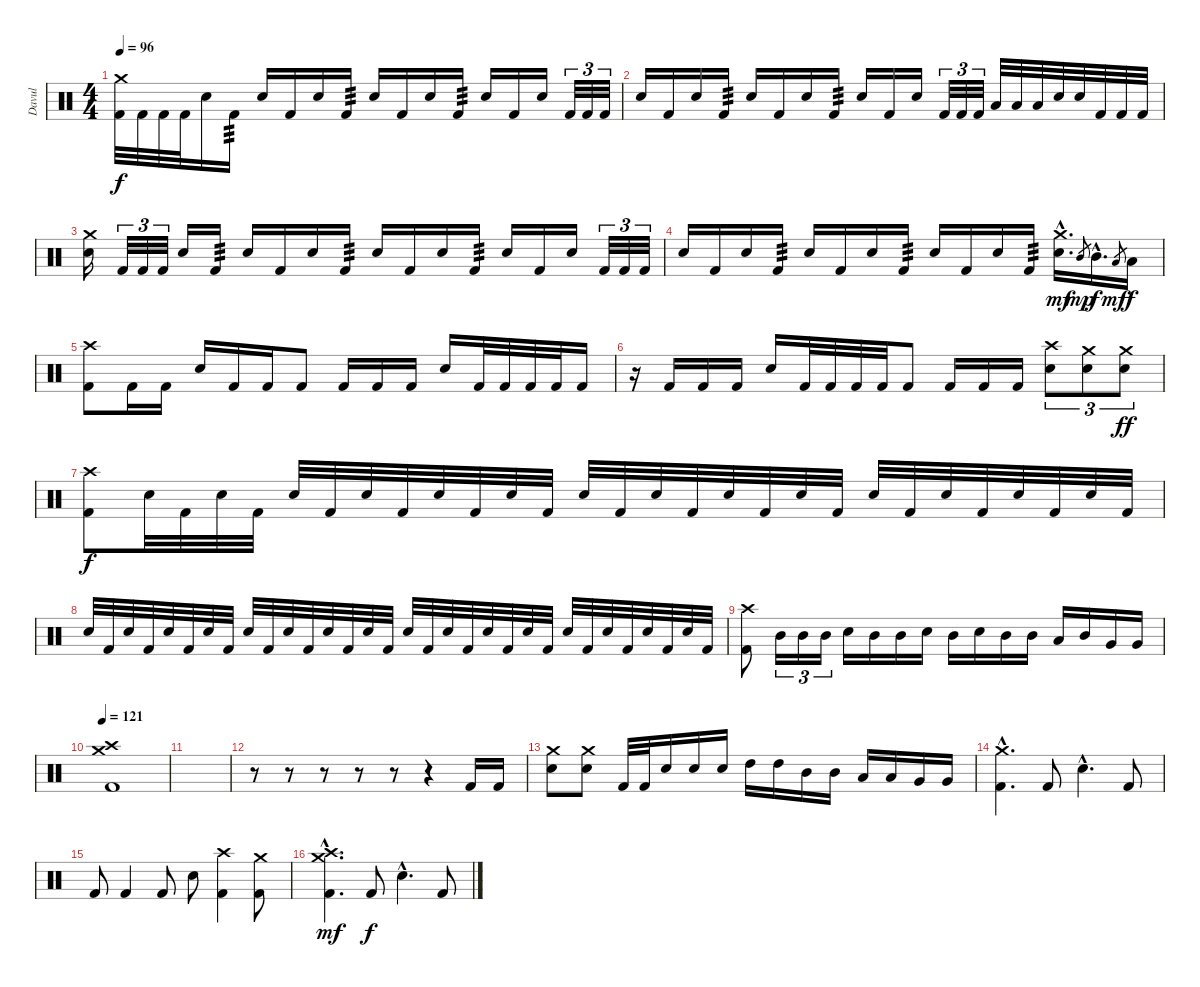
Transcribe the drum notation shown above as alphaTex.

\track ("Davul" "Davul") {instrument percussion}
\staff {score}
\articulation defaults
\ts (4 4)
\tempo 96
\clef neutral
\ks c
("Crash medium (hit)" "Kick (hit) 2").32{dy f} "Kick (hit) 2".32 "Kick (hit) 2".32 "Kick (hit) 2".32 "Electric Snare (hit)".16 "Kick (hit) 2".16{tp 3} "Electric Snare (hit)".16 "Kick (hit) 2".16 "Electric Snare (hit)".16 "Kick (hit) 2".16{tp 3} "Electric Snare (hit)".16 "Kick (hit) 2".16 "Electric Snare (hit)".16 "Kick (hit) 2".16{tp 3} "Electric Snare (hit)".16 "Kick (hit) 2".16 "Electric Snare (hit)".16 "Kick (hit) 2".32{tu (3 2)} "Kick (hit) 2".32{tu (3 2)} "Kick (hit) 2".32{tu (3 2)} |
"Electric Snare (hit)".16 "Kick (hit) 2".16 "Electric Snare (hit)".16 "Kick (hit) 2".16{tp 3} "Electric Snare (hit)".16 "Kick (hit) 2".16 "Electric Snare (hit)".16 "Kick (hit) 2".16{tp 3} "Electric Snare (hit)".16 "Kick (hit) 2".16 "Electric Snare (hit)".16 "Kick (hit) 2".32{tu (3 2)} "Kick (hit) 2".32{tu (3 2)} "Kick (hit) 2".32{tu (3 2)} "Low Tom (hit)".32 "Low Tom (hit)".32 "Low Tom (hit)".32 "Electric Snare (hit)".32 "Electric Snare (hit)".32 "Kick (hit) 2".32 "Kick (hit) 2".32 "Kick (hit) 2".32 |
("Crash medium (hit)" "Electric Snare (hit)").16 "Kick (hit) 2".32{tu (3 2)} "Kick (hit) 2".32{tu (3 2)} "Kick (hit) 2".32{tu (3 2)} "Electric Snare (hit)".16 "Kick (hit) 2".16{tp 3} "Electric Snare (hit)".16 "Kick (hit) 2".16 "Electric Snare (hit)".16 "Kick (hit) 2".16{tp 3} "Electric Snare (hit)".16 "Kick (hit) 2".16 "Electric Snare (hit)".16 "Kick (hit) 2".16{tp 3} "Electric Snare (hit)".16 "Kick (hit) 2".16 "Electric Snare (hit)".16 "Kick (hit) 2".32{tu (3 2)} "Kick (hit) 2".32{tu (3 2)} "Kick (hit) 2".32{tu (3 2)} |
"Electric Snare (hit)".16 "Kick (hit) 2".16 "Electric Snare (hit)".16 "Kick (hit) 2".16{tp 3} "Electric Snare (hit)".16 "Kick (hit) 2".16 "Electric Snare (hit)".16 "Kick (hit) 2".16{tp 3} "Electric Snare (hit)".16 "Kick (hit) 2".16 "Electric Snare (hit)".16 "Kick (hit) 2".16{tp 3} ("Crash medium (hit)"{hac} "Electric Snare (hit)"{hac}).16{d dy mf} "Mid Tom (hit)".8{gr dy mp} "Mid Tom (hit)"{hac}.16{d dy f} "Low Tom (hit)".8{gr dy mf} "Low Tom (hit)".16{dy f} |
("Crash high (hit)" "Kick (hit) 2").8 "Kick (hit) 2".16 "Kick (hit) 2".16 "Electric Snare (hit)".16 "Kick (hit) 2".16 "Kick (hit) 2".16 "Kick (hit) 2".8 "Kick (hit) 2".16 "Kick (hit) 2".16 "Kick (hit) 2".16 "Electric Snare (hit)".16 "Kick (hit) 2".32 "Kick (hit) 2".32 "Kick (hit) 2".32 "Kick (hit) 2".32 "Kick (hit) 2".16 |
r.16 "Kick (hit) 2".16 "Kick (hit) 2".16 "Kick (hit) 2".16 "Electric Snare (hit)".16 "Kick (hit) 2".32 "Kick (hit) 2".32 "Kick (hit) 2".32 "Kick (hit) 2".32 "Kick (hit) 2".8 "Kick (hit) 2".16 "Kick (hit) 2".16 "Kick (hit) 2".16 ("Crash high (hit)" "Electric Snare (hit)").8{tu (3 2)} ("Crash medium (hit)" "Electric Snare (hit)").8{tu (3 2)} ("Crash medium (hit)" "Electric Snare (hit)").8{tu (3 2) dy ff} |
("Crash high (hit)" "Kick (hit) 2").8{dy f} "Electric Snare (hit)".32 "Kick (hit) 2".32 "Electric Snare (hit)".32 "Kick (hit) 2".32 "Electric Snare (hit)".32 "Kick (hit) 2".32 "Electric Snare (hit)".32 "Kick (hit) 2".32 "Electric Snare (hit)".32 "Kick (hit) 2".32 "Electric Snare (hit)".32 "Kick (hit) 2".32 "Electric Snare (hit)".32 "Kick (hit) 2".32 "Electric Snare (hit)".32 "Kick (hit) 2".32 "Electric Snare (hit)".32 "Kick (hit) 2".32 "Electric Snare (hit)".32 "Kick (hit) 2".32 "Electric Snare (hit)".32 "Kick (hit) 2".32 "Electric Snare (hit)".32 "Kick (hit) 2".32 "Electric Snare (hit)".32 "Kick (hit) 2".32 "Electric Snare (hit)".32 "Kick (hit) 2".32 |
"Electric Snare (hit)".32 "Kick (hit) 2".32 "Electric Snare (hit)".32 "Kick (hit) 2".32 "Electric Snare (hit)".32 "Kick (hit) 2".32 "Electric Snare (hit)".32 "Kick (hit) 2".32 "Electric Snare (hit)".32 "Kick (hit) 2".32 "Electric Snare (hit)".32 "Kick (hit) 2".32 "Electric Snare (hit)".32 "Kick (hit) 2".32 "Electric Snare (hit)".32 "Kick (hit) 2".32 "Electric Snare (hit)".32 "Kick (hit) 2".32 "Electric Snare (hit)".32 "Kick (hit) 2".32 "Electric Snare (hit)".32 "Kick (hit) 2".32 "Electric Snare (hit)".32 "Kick (hit) 2".32 "Electric Snare (hit)".32 "Kick (hit) 2".32 "Electric Snare (hit)".32 "Kick (hit) 2".32 "Electric Snare (hit)".32 "Kick (hit) 2".32 "Electric Snare (hit)".32 "Kick (hit) 2".32 |
("Crash high (hit)" "Kick (hit) 2").8 "Mid Tom (hit)".16{tu (3 2)} "Mid Tom (hit)".16{tu (3 2)} "Mid Tom (hit)".16{tu (3 2)} "Electric Snare (hit)".16 "Mid Tom (hit)".16 "Mid Tom (hit)".16 "Electric Snare (hit)".16 "Mid Tom (hit)".16 "Electric Snare (hit)".16 "Mid Tom (hit)".16 "Mid Tom (hit)".16 "Low Tom (hit)".16 "Mid Tom (hit)".16 "Very Low Tom (hit)".16 "Very Low Tom (hit)".16 |
\section ("" "")
\tempo 121
("Crash medium (hit)" "Crash high (hit)" "Kick (hit) 2").1 |
|
r.8 r.8 r.8 r.8 r.8 r.4 "Kick (hit) 2".16 "Kick (hit) 2".16 |
("Crash medium (hit)" "Electric Snare (hit)").8 ("Crash medium (hit)" "Electric Snare (hit)").8 "Kick (hit) 2".32 "Kick (hit) 2".32 "Electric Snare (hit)".16 "Electric Snare (hit)".16 "Electric Snare (hit)".16 "High Tom (hit)".16 "High Tom (hit)".16 "Mid Tom (hit)".16 "Mid Tom (hit)".16 "Low Tom (hit)".16 "Low Tom (hit)".16 "Very Low Tom (hit)".16 "Very Low Tom (hit)".16 |
("Crash medium (hit)"{hac} "Kick (hit) 2"{hac}).4{d} "Kick (hit) 2".8 "Electric Snare (hit)"{hac}.4{d} "Kick (hit) 2".8 |
"Kick (hit) 2".8 "Kick (hit) 2".4 "Kick (hit) 2".8 "Electric Snare (hit)".8 ("Crash high (hit)" "Kick (hit) 2").4 ("Crash medium (hit)" "Kick (hit) 2").8 |
("Crash medium (hit)"{hac} "Crash high (hit)"{hac} "Kick (hit) 2"{hac}).4{d dy mf} "Kick (hit) 2".8{dy f} "Electric Snare (hit)"{hac}.4{d} "Kick (hit) 2".8
